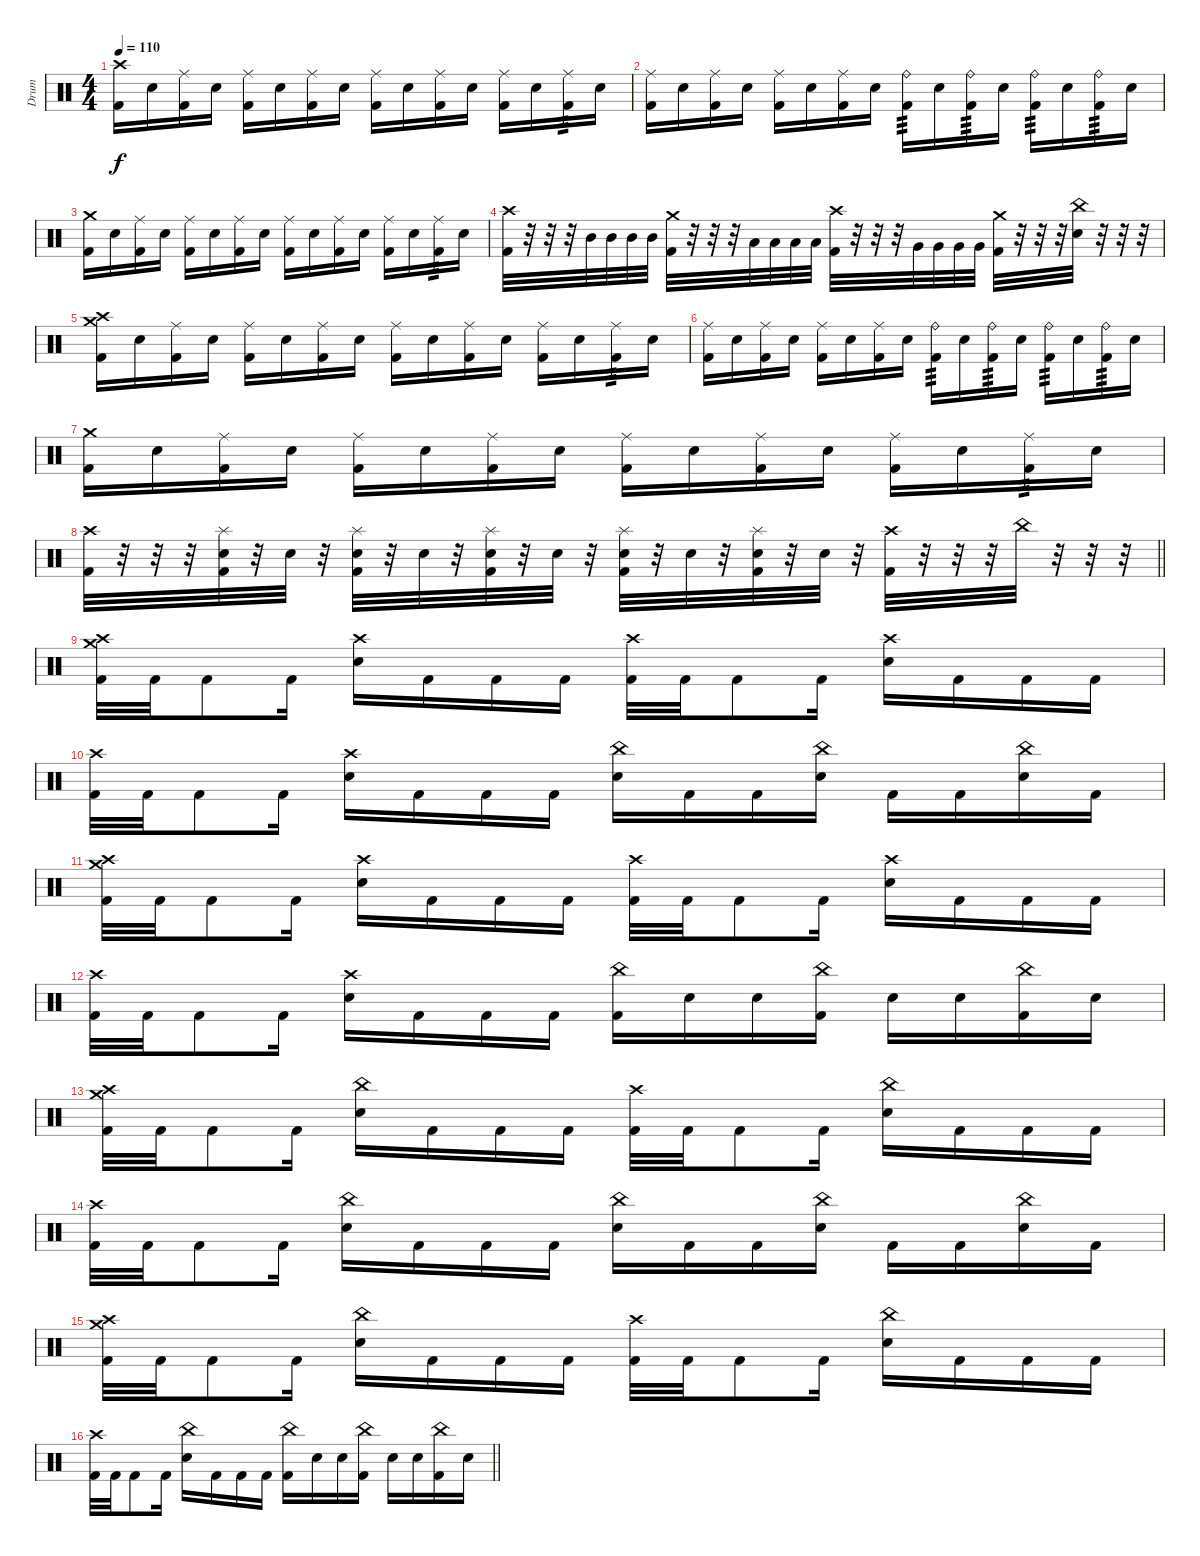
\track ("Drum" "Drum") {instrument percussion}
\staff {score}
\articulation defaults
\ts (4 4)
\section ("" "")
\tempo 110
\clef neutral
\ks c
("Crash high (hit)" "Kick (hit) 2").16{dy f} "Snare (hit) 2".16 ("Ride (middle)" "Kick (hit) 2").16 "Snare (hit) 2".16 ("Ride (middle)" "Kick (hit) 2").16 "Snare (hit) 2".16 ("Ride (middle)" "Kick (hit) 2").16 "Snare (hit) 2".16 ("Ride (middle)" "Kick (hit) 2").16 "Snare (hit) 2".16 ("Ride (middle)" "Kick (hit) 2").16 "Snare (hit) 2".16 ("Ride (middle)" "Kick (hit) 2").16 "Snare (hit) 2".16 ("Ride (middle)" "Kick (hit) 2").16{tp 3} "Snare (hit) 2".16 |
("Ride (middle)" "Kick (hit) 2").16 "Snare (hit) 2".16 ("Ride (middle)" "Kick (hit) 2").16 "Snare (hit) 2".16 ("Ride (middle)" "Kick (hit) 2").16 "Snare (hit) 2".16 ("Ride (middle)" "Kick (hit) 2").16 "Snare (hit) 2".16 ("Ride (bell)" "Kick (hit) 2").16{tp 3} "Snare (hit) 2".16 ("Ride (bell)" "Kick (hit) 2").16{tp 3} "Snare (hit) 2".16 ("Ride (bell)" "Kick (hit) 2").16{tp 3} "Snare (hit) 2".16 ("Ride (bell)" "Kick (hit) 2").16{tp 3} "Snare (hit) 2".16 |
("Crash medium (hit)" "Kick (hit) 2").16 "Snare (hit) 2".16 ("Ride (middle)" "Kick (hit) 2").16 "Snare (hit) 2".16 ("Ride (middle)" "Kick (hit) 2").16 "Snare (hit) 2".16 ("Ride (middle)" "Kick (hit) 2").16 "Snare (hit) 2".16 ("Ride (middle)" "Kick (hit) 2").16 "Snare (hit) 2".16 ("Ride (middle)" "Kick (hit) 2").16 "Snare (hit) 2".16 ("Ride (middle)" "Kick (hit) 2").16 "Snare (hit) 2".16 ("Ride (middle)" "Kick (hit) 2").16{tp 3} "Snare (hit) 2".16 |
("Crash high (hit)" "Kick (hit) 2").32 r.32 r.32 r.32 "Mid Tom (hit)".32 "Mid Tom (hit)".32 "Mid Tom (hit)".32 "Mid Tom (hit)".32 ("Crash medium (hit)" "Kick (hit) 2").32 r.32 r.32 r.32 "Low Tom (hit)".32 "Low Tom (hit)".32 "Low Tom (hit)".32 "Low Tom (hit)".32 ("Crash high (hit)" "Kick (hit) 2").32 r.32 r.32 r.32 "Very Low Tom (hit)".32 "Very Low Tom (hit)".32 "Very Low Tom (hit)".32 "Very Low Tom (hit)".32 ("Crash medium (hit)" "Kick (hit) 2").32 r.32 r.32 r.32 ("China (hit)" "Snare (hit) 2").32 r.32 r.32 r.32 |
("Crash high (hit)" "Crash medium (hit)" "Kick (hit) 2").16 "Snare (hit) 2".16 ("Ride (middle)" "Kick (hit) 2").16 "Snare (hit) 2".16 ("Ride (middle)" "Kick (hit) 2").16 "Snare (hit) 2".16 ("Ride (middle)" "Kick (hit) 2").16 "Snare (hit) 2".16 ("Ride (middle)" "Kick (hit) 2").16 "Snare (hit) 2".16 ("Ride (middle)" "Kick (hit) 2").16 "Snare (hit) 2".16 ("Ride (middle)" "Kick (hit) 2").16 "Snare (hit) 2".16 ("Ride (middle)" "Kick (hit) 2").16{tp 3} "Snare (hit) 2".16 |
("Ride (middle)" "Kick (hit) 2").16 "Snare (hit) 2".16 ("Ride (middle)" "Kick (hit) 2").16 "Snare (hit) 2".16 ("Ride (middle)" "Kick (hit) 2").16 "Snare (hit) 2".16 ("Ride (middle)" "Kick (hit) 2").16 "Snare (hit) 2".16 ("Ride (bell)" "Kick (hit) 2").16{tp 3} "Snare (hit) 2".16 ("Ride (bell)" "Kick (hit) 2").16{tp 3} "Snare (hit) 2".16 ("Ride (bell)" "Kick (hit) 2").16{tp 3} "Snare (hit) 2".16 ("Ride (bell)" "Kick (hit) 2").16{tp 3} "Snare (hit) 2".16 |
("Crash medium (hit)" "Kick (hit) 2").16 "Snare (hit) 2".16 ("Ride (middle)" "Kick (hit) 2").16 "Snare (hit) 2".16 ("Ride (middle)" "Kick (hit) 2").16 "Snare (hit) 2".16 ("Ride (middle)" "Kick (hit) 2").16 "Snare (hit) 2".16 ("Ride (middle)" "Kick (hit) 2").16 "Snare (hit) 2".16 ("Ride (middle)" "Kick (hit) 2").16 "Snare (hit) 2".16 ("Ride (middle)" "Kick (hit) 2").16 "Snare (hit) 2".16 ("Ride (middle)" "Kick (hit) 2").16{tp 3} "Snare (hit) 2".16 |
\barLineRight lightlight
("Crash high (hit)" "Kick (hit) 2").32 r.32 r.32 r.32 ("Splash (hit)" "Snare (hit) 2" "Kick (hit) 2").32 r.32 "Snare (hit) 2".32 r.32 ("Splash (hit)" "Snare (hit) 2" "Kick (hit) 2").32 r.32 "Snare (hit) 2".32 r.32 ("Splash (hit)" "Snare (hit) 2" "Kick (hit) 2").32 r.32 "Snare (hit) 2".32 r.32 ("Splash (hit)" "Snare (hit) 2" "Kick (hit) 2").32 r.32 "Snare (hit) 2".32 r.32 ("Splash (hit)" "Snare (hit) 2" "Kick (hit) 2").32 r.32 "Snare (hit) 2".32 r.32 ("Crash high (hit)" "Kick (hit) 2").32 r.32 r.32 r.32 "China (hit)".32 r.32 r.32 r.32 |
\section ("" "")
("Crash high (hit)" "Crash medium (hit)" "Kick (hit) 2").32 "Kick (hit) 2".32 "Kick (hit) 2".8 "Kick (hit) 2".16 ("Crash high (hit)" "Snare (hit) 2").16 "Kick (hit) 2".16 "Kick (hit) 2".16 "Kick (hit) 2".16 ("Crash high (hit)" "Kick (hit) 2").32 "Kick (hit) 2".32 "Kick (hit) 2".8 "Kick (hit) 2".16 ("Crash high (hit)" "Snare (hit) 2").16 "Kick (hit) 2".16 "Kick (hit) 2".16 "Kick (hit) 2".16 |
("Crash high (hit)" "Kick (hit) 2").32 "Kick (hit) 2".32 "Kick (hit) 2".8 "Kick (hit) 2".16 ("Crash high (hit)" "Snare (hit) 2").16 "Kick (hit) 2".16 "Kick (hit) 2".16 "Kick (hit) 2".16 ("China (hit)" "Snare (hit) 2").16 "Kick (hit) 2".16 "Kick (hit) 2".16 ("China (hit)" "Snare (hit) 2").16 "Kick (hit) 2".16 "Kick (hit) 2".16 ("China (hit)" "Snare (hit) 2").16 "Kick (hit) 2".16 |
("Crash high (hit)" "Crash medium (hit)" "Kick (hit) 2").32 "Kick (hit) 2".32 "Kick (hit) 2".8 "Kick (hit) 2".16 ("Crash high (hit)" "Snare (hit) 2").16 "Kick (hit) 2".16 "Kick (hit) 2".16 "Kick (hit) 2".16 ("Crash high (hit)" "Kick (hit) 2").32 "Kick (hit) 2".32 "Kick (hit) 2".8 "Kick (hit) 2".16 ("Crash high (hit)" "Snare (hit) 2").16 "Kick (hit) 2".16 "Kick (hit) 2".16 "Kick (hit) 2".16 |
("Crash high (hit)" "Kick (hit) 2").32 "Kick (hit) 2".32 "Kick (hit) 2".8 "Kick (hit) 2".16 ("Crash high (hit)" "Snare (hit) 2").16 "Kick (hit) 2".16 "Kick (hit) 2".16 "Kick (hit) 2".16 ("China (hit)" "Kick (hit) 2").16 "Snare (hit) 2".16 "Snare (hit) 2".16 ("China (hit)" "Kick (hit) 2").16 "Snare (hit) 2".16 "Snare (hit) 2".16 ("China (hit)" "Kick (hit) 2").16 "Snare (hit) 2".16 |
("Crash high (hit)" "Crash medium (hit)" "Kick (hit) 2").32 "Kick (hit) 2".32 "Kick (hit) 2".8 "Kick (hit) 2".16 ("China (hit)" "Snare (hit) 2").16 "Kick (hit) 2".16 "Kick (hit) 2".16 "Kick (hit) 2".16 ("Crash high (hit)" "Kick (hit) 2").32 "Kick (hit) 2".32 "Kick (hit) 2".8 "Kick (hit) 2".16 ("China (hit)" "Snare (hit) 2").16 "Kick (hit) 2".16 "Kick (hit) 2".16 "Kick (hit) 2".16 |
("Crash high (hit)" "Kick (hit) 2").32 "Kick (hit) 2".32 "Kick (hit) 2".8 "Kick (hit) 2".16 ("China (hit)" "Snare (hit) 2").16 "Kick (hit) 2".16 "Kick (hit) 2".16 "Kick (hit) 2".16 ("China (hit)" "Snare (hit) 2").16 "Kick (hit) 2".16 "Kick (hit) 2".16 ("China (hit)" "Snare (hit) 2").16 "Kick (hit) 2".16 "Kick (hit) 2".16 ("China (hit)" "Snare (hit) 2").16 "Kick (hit) 2".16 |
("Crash high (hit)" "Crash medium (hit)" "Kick (hit) 2").32 "Kick (hit) 2".32 "Kick (hit) 2".8 "Kick (hit) 2".16 ("China (hit)" "Snare (hit) 2").16 "Kick (hit) 2".16 "Kick (hit) 2".16 "Kick (hit) 2".16 ("Crash high (hit)" "Kick (hit) 2").32 "Kick (hit) 2".32 "Kick (hit) 2".8 "Kick (hit) 2".16 ("China (hit)" "Snare (hit) 2").16 "Kick (hit) 2".16 "Kick (hit) 2".16 "Kick (hit) 2".16 |
\barLineRight lightlight
("Crash high (hit)" "Kick (hit) 2").32 "Kick (hit) 2".32 "Kick (hit) 2".8 "Kick (hit) 2".16 ("China (hit)" "Snare (hit) 2").16 "Kick (hit) 2".16 "Kick (hit) 2".16 "Kick (hit) 2".16 ("China (hit)" "Kick (hit) 2").16 "Snare (hit) 2".16 "Snare (hit) 2".16 ("China (hit)" "Kick (hit) 2").16 "Snare (hit) 2".16 "Snare (hit) 2".16 ("China (hit)" "Kick (hit) 2").16 "Snare (hit) 2".16
